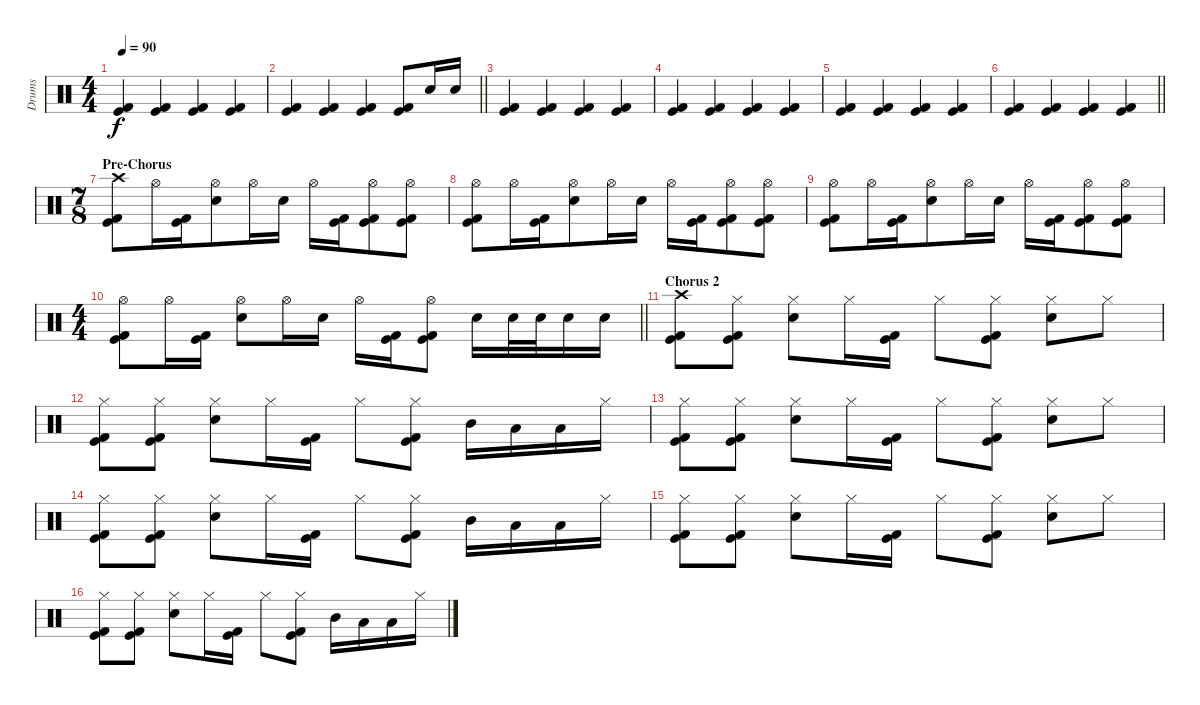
\track ("Drums" "Drums") {instrument percussion}
\staff {score}
\articulation defaults
\ts (4 4)
\tempo 90
\clef neutral
\ks c
("Kick (hit)" "Kick (hit) 2").4{dy f} ("Kick (hit)" "Kick (hit) 2").4 ("Kick (hit)" "Kick (hit) 2").4 ("Kick (hit)" "Kick (hit) 2").4 |
\barLineRight lightlight
("Kick (hit)" "Kick (hit) 2").4 ("Kick (hit)" "Kick (hit) 2").4 ("Kick (hit)" "Kick (hit) 2").4 ("Kick (hit)" "Kick (hit) 2").8 "Snare (hit) 2".16 "Snare (hit) 2".16 |
("Kick (hit)" "Kick (hit) 2").4 ("Kick (hit)" "Kick (hit) 2").4 ("Kick (hit)" "Kick (hit) 2").4 ("Kick (hit)" "Kick (hit) 2").4 |
("Kick (hit)" "Kick (hit) 2").4 ("Kick (hit)" "Kick (hit) 2").4 ("Kick (hit)" "Kick (hit) 2").4 ("Kick (hit)" "Kick (hit) 2").4 |
("Kick (hit)" "Kick (hit) 2").4 ("Kick (hit)" "Kick (hit) 2").4 ("Kick (hit)" "Kick (hit) 2").4 ("Kick (hit)" "Kick (hit) 2").4 |
\barLineRight lightlight
("Kick (hit)" "Kick (hit) 2").4 ("Kick (hit)" "Kick (hit) 2").4 ("Kick (hit)" "Kick (hit) 2").4 ("Kick (hit)" "Kick (hit) 2").4 |
\ts (7 8)
\section ("" "Pre-Chorus")
("Crash high (hit)" "Kick (hit)" "Kick (hit) 2").8 "Hi-Hat (open)".16 ("Kick (hit)" "Kick (hit) 2").16 ("Hi-Hat (open)" "Snare (hit) 2").8 "Hi-Hat (open)".16 "Snare (hit) 2".16 "Hi-Hat (open)".16 ("Kick (hit)" "Kick (hit) 2").16 ("Hi-Hat (open)" "Kick (hit)" "Kick (hit) 2").8 ("Hi-Hat (open)" "Kick (hit)" "Kick (hit) 2").8 |
("Hi-Hat (open)" "Kick (hit)" "Kick (hit) 2").8 "Hi-Hat (open)".16 ("Kick (hit)" "Kick (hit) 2").16 ("Hi-Hat (open)" "Snare (hit) 2").8 "Hi-Hat (open)".16 "Snare (hit) 2".16 "Hi-Hat (open)".16 ("Kick (hit)" "Kick (hit) 2").16 ("Hi-Hat (open)" "Kick (hit)" "Kick (hit) 2").8 ("Hi-Hat (open)" "Kick (hit)" "Kick (hit) 2").8 |
("Hi-Hat (open)" "Kick (hit)" "Kick (hit) 2").8 "Hi-Hat (open)".16 ("Kick (hit)" "Kick (hit) 2").16 ("Hi-Hat (open)" "Snare (hit) 2").8 "Hi-Hat (open)".16 "Snare (hit) 2".16 "Hi-Hat (open)".16 ("Kick (hit)" "Kick (hit) 2").16 ("Hi-Hat (open)" "Kick (hit)" "Kick (hit) 2").8 ("Hi-Hat (open)" "Kick (hit)" "Kick (hit) 2").8 |
\ts (4 4)
\barLineRight lightlight
("Hi-Hat (open)" "Kick (hit)" "Kick (hit) 2").8 "Hi-Hat (open)".16 ("Kick (hit)" "Kick (hit) 2").16 ("Hi-Hat (open)" "Snare (hit) 2").8 "Hi-Hat (open)".16 "Snare (hit) 2".16 "Hi-Hat (open)".16 ("Kick (hit)" "Kick (hit) 2").16 ("Hi-Hat (open)" "Kick (hit)" "Kick (hit) 2").8 "Snare (hit) 2".16 "Snare (hit) 2".32 "Snare (hit) 2".32 "Snare (hit) 2".16 "Snare (hit) 2".16 |
\section ("" "Chorus 2")
("Crash high (hit)" "Kick (hit)" "Kick (hit) 2").8 ("Hi-Hat (closed)" "Kick (hit)" "Kick (hit) 2").8 ("Hi-Hat (closed)" "Snare (hit) 2").8 "Hi-Hat (closed)".16 ("Kick (hit)" "Kick (hit) 2").16 "Hi-Hat (closed)".8 ("Hi-Hat (closed)" "Kick (hit)" "Kick (hit) 2").8 ("Hi-Hat (closed)" "Snare (hit) 2").8 "Hi-Hat (closed)".8 |
("Hi-Hat (closed)" "Kick (hit)" "Kick (hit) 2").8 ("Hi-Hat (closed)" "Kick (hit)" "Kick (hit) 2").8 ("Hi-Hat (closed)" "Snare (hit) 2").8 "Hi-Hat (closed)".16 ("Kick (hit)" "Kick (hit) 2").16 "Hi-Hat (closed)".8 ("Hi-Hat (closed)" "Kick (hit)" "Kick (hit) 2").8 "Mid Tom (hit)".16 "Low Tom (hit)".16 "Low Tom (hit)".16 "Hi-Hat (closed)".16 |
("Hi-Hat (closed)" "Kick (hit)" "Kick (hit) 2").8 ("Hi-Hat (closed)" "Kick (hit)" "Kick (hit) 2").8 ("Hi-Hat (closed)" "Snare (hit) 2").8 "Hi-Hat (closed)".16 ("Kick (hit)" "Kick (hit) 2").16 "Hi-Hat (closed)".8 ("Hi-Hat (closed)" "Kick (hit)" "Kick (hit) 2").8 ("Hi-Hat (closed)" "Snare (hit) 2").8 "Hi-Hat (closed)".8 |
("Hi-Hat (closed)" "Kick (hit)" "Kick (hit) 2").8 ("Hi-Hat (closed)" "Kick (hit)" "Kick (hit) 2").8 ("Hi-Hat (closed)" "Snare (hit) 2").8 "Hi-Hat (closed)".16 ("Kick (hit)" "Kick (hit) 2").16 "Hi-Hat (closed)".8 ("Hi-Hat (closed)" "Kick (hit)" "Kick (hit) 2").8 "Mid Tom (hit)".16 "Low Tom (hit)".16 "Low Tom (hit)".16 "Hi-Hat (closed)".16 |
("Hi-Hat (closed)" "Kick (hit)" "Kick (hit) 2").8 ("Hi-Hat (closed)" "Kick (hit)" "Kick (hit) 2").8 ("Hi-Hat (closed)" "Snare (hit) 2").8 "Hi-Hat (closed)".16 ("Kick (hit)" "Kick (hit) 2").16 "Hi-Hat (closed)".8 ("Hi-Hat (closed)" "Kick (hit)" "Kick (hit) 2").8 ("Hi-Hat (closed)" "Snare (hit) 2").8 "Hi-Hat (closed)".8 |
("Hi-Hat (closed)" "Kick (hit)" "Kick (hit) 2").8 ("Hi-Hat (closed)" "Kick (hit)" "Kick (hit) 2").8 ("Hi-Hat (closed)" "Snare (hit) 2").8 "Hi-Hat (closed)".16 ("Kick (hit)" "Kick (hit) 2").16 "Hi-Hat (closed)".8 ("Hi-Hat (closed)" "Kick (hit)" "Kick (hit) 2").8 "Mid Tom (hit)".16 "Low Tom (hit)".16 "Low Tom (hit)".16 "Hi-Hat (closed)".16
